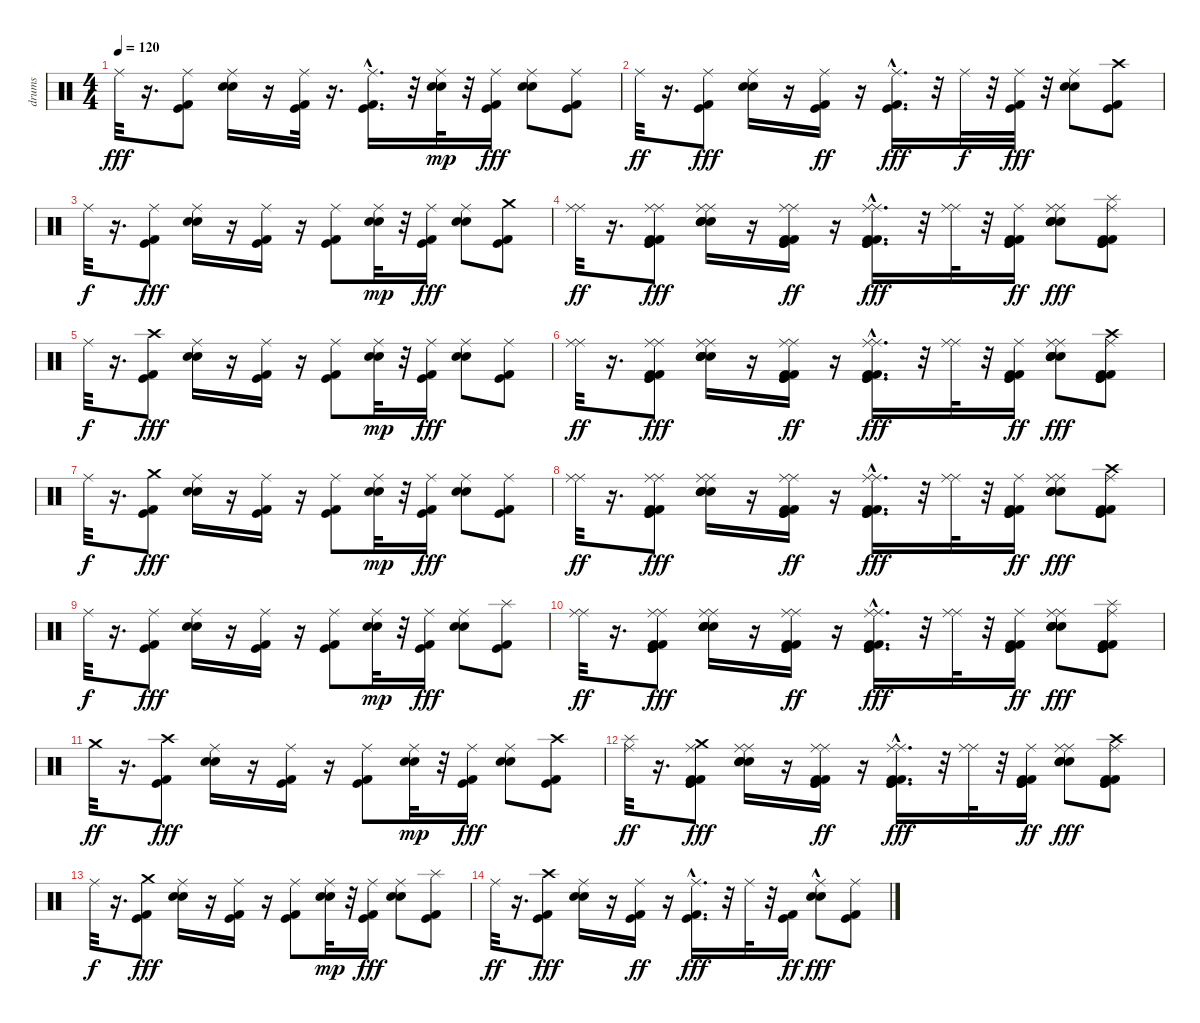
\track ("drums" "drums") {instrument percussion}
\staff {score}
\articulation defaults
\ts (4 4)
\tempo 120
\clef neutral
\ks c "Ride (middle)".32{dy fff}
r.16{d} ("Ride (middle)" "Kick (hit) 2" "Kick (hit)").8 ("Ride (middle)" "Snare (hit) 2" "Electric Snare (hit)").16 r.16 ("Ride (middle)" "Kick (hit) 2" "Kick (hit)").32 r.16{d} ("Ride (middle)" "Kick (hit)"{hac} "Kick (hit) 2"{hac}).16{d} r.32 ("Ride (middle)" "Snare (hit) 2" "Electric Snare (hit)").32{dy mp} r.32 ("Ride (middle)" "Kick (hit)" "Kick (hit) 2").16{dy fff} ("Ride (middle)" "Snare (hit) 2" "Electric Snare (hit)").8 ("Ride (middle)" "Kick (hit) 2" "Kick (hit)").8 |
"Ride (middle)".32{dy ff} r.16{d} ("Ride (middle)" "Kick (hit) 2" "Kick (hit)").8{dy fff} ("Ride (middle)" "Electric Snare (hit)" "Snare (hit) 2").16 r.16 ("Ride (middle)" "Kick (hit) 2" "Kick (hit)").16{dy ff} r.16 ("Ride (middle)" "Kick (hit) 2"{hac} "Kick (hit)"{hac}).16{d dy fff} r.32 "Ride (middle)".32{dy f} r.32 ("Ride (middle)" "Kick (hit) 2" "Kick (hit)").32{dy fff} r.32 ("Ride (middle)" "Snare (hit) 2" "Electric Snare (hit)").8 ("Crash high (hit)" "Kick (hit) 2" "Kick (hit)").8 |
"Ride (middle)".32{dy f} r.16{d} ("Ride (middle)" "Kick (hit) 2" "Kick (hit)").8{dy fff} ("Ride (middle)" "Electric Snare (hit)" "Snare (hit) 2").16 r.16 ("Ride (middle)" "Kick (hit) 2" "Kick (hit)").16 r.16 ("Ride (middle)" "Kick (hit) 2" "Kick (hit)").8 ("Ride (middle)" "Snare (hit) 2" "Electric Snare (hit)").32{dy mp} r.32 ("Ride (middle)" "Kick (hit) 2" "Kick (hit)").16{dy fff} ("Ride (middle)" "Snare (hit) 2" "Electric Snare (hit)").8 ("Crash medium (hit)" "Kick (hit) 2" "Kick (hit)").8 |
("Ride (middle)" "Ride (middle)").32{dy ff} r.16{d} ("Ride (middle)" "Ride (middle)" "Kick (hit) 2" "Kick (hit)" "Kick (hit)" "Kick (hit) 2").8{dy fff} ("Ride (middle)" "Ride (middle)" "Electric Snare (hit)" "Snare (hit) 2" "Electric Snare (hit)" "Snare (hit) 2").16 r.16 ("Ride (middle)" "Ride (middle)" "Kick (hit) 2" "Kick (hit)" "Kick (hit) 2" "Kick (hit)").16{dy ff} r.16 ("Ride (middle)" "Ride (middle)" "Kick (hit) 2"{hac} "Kick (hit)"{hac} "Kick (hit) 2"{hac} "Kick (hit)"{hac}).16{d dy fff} r.32 ("Ride (middle)" "Ride (middle)").32 r.32 ("Ride (middle)" "Kick (hit) 2" "Kick (hit)" "Kick (hit)" "Kick (hit) 2").16{dy ff} ("Ride (middle)" "Ride (middle)" "Snare (hit) 2" "Electric Snare (hit)" "Snare (hit) 2" "Electric Snare (hit)").8{dy fff} ("Ride (middle)" "Splash (hit)" "Kick (hit) 2" "Kick (hit)" "Kick (hit)" "Kick (hit) 2").8 |
"Ride (middle)".32{dy f} r.16{d} ("Crash high (hit)" "Kick (hit) 2" "Kick (hit)").8{dy fff} ("Ride (middle)" "Electric Snare (hit)" "Snare (hit) 2").16 r.16 ("Ride (middle)" "Kick (hit) 2" "Kick (hit)").16 r.16 ("Ride (middle)" "Kick (hit) 2" "Kick (hit)").8 ("Ride (middle)" "Snare (hit) 2" "Electric Snare (hit)").32{dy mp} r.32 ("Ride (middle)" "Kick (hit) 2" "Kick (hit)").16{dy fff} ("Ride (middle)" "Snare (hit) 2" "Electric Snare (hit)").8 ("Ride (middle)" "Kick (hit) 2" "Kick (hit)").8 |
("Ride (middle)" "Ride (middle)").32{dy ff} r.16{d} ("Ride (middle)" "Ride (middle)" "Kick (hit) 2" "Kick (hit)" "Kick (hit)" "Kick (hit) 2").8{dy fff} ("Ride (middle)" "Ride (middle)" "Electric Snare (hit)" "Snare (hit) 2" "Electric Snare (hit)" "Snare (hit) 2").16 r.16 ("Ride (middle)" "Ride (middle)" "Kick (hit) 2" "Kick (hit)" "Kick (hit) 2" "Kick (hit)").16{dy ff} r.16 ("Ride (middle)" "Ride (middle)" "Kick (hit) 2"{hac} "Kick (hit)"{hac} "Kick (hit) 2"{hac} "Kick (hit)"{hac}).16{d dy fff} r.32 ("Ride (middle)" "Ride (middle)").32 r.32 ("Ride (middle)" "Kick (hit) 2" "Kick (hit)" "Kick (hit)" "Kick (hit) 2").16{dy ff} ("Ride (middle)" "Ride (middle)" "Snare (hit) 2" "Electric Snare (hit)" "Snare (hit) 2" "Electric Snare (hit)").8{dy fff} ("Ride (middle)" "Crash high (hit)" "Kick (hit) 2" "Kick (hit)" "Kick (hit)" "Kick (hit) 2").8 |
"Ride (middle)".32{dy f} r.16{d} ("Crash medium (hit)" "Kick (hit) 2" "Kick (hit)").8{dy fff} ("Ride (middle)" "Electric Snare (hit)" "Snare (hit) 2").16 r.16 ("Ride (middle)" "Kick (hit) 2" "Kick (hit)").16 r.16 ("Ride (middle)" "Kick (hit) 2" "Kick (hit)").8 ("Ride (middle)" "Snare (hit) 2" "Electric Snare (hit)").32{dy mp} r.32 ("Ride (middle)" "Kick (hit) 2" "Kick (hit)").16{dy fff} ("Ride (middle)" "Snare (hit) 2" "Electric Snare (hit)").8 ("Ride (middle)" "Kick (hit) 2" "Kick (hit)").8 |
("Ride (middle)" "Ride (middle)").32{dy ff} r.16{d} ("Ride (middle)" "Ride (middle)" "Kick (hit) 2" "Kick (hit)" "Kick (hit)" "Kick (hit) 2").8{dy fff} ("Ride (middle)" "Ride (middle)" "Electric Snare (hit)" "Snare (hit) 2" "Electric Snare (hit)" "Snare (hit) 2").16 r.16 ("Ride (middle)" "Ride (middle)" "Kick (hit) 2" "Kick (hit)" "Kick (hit) 2" "Kick (hit)").16{dy ff} r.16 ("Ride (middle)" "Ride (middle)" "Kick (hit) 2"{hac} "Kick (hit)"{hac} "Kick (hit) 2"{hac} "Kick (hit)"{hac}).16{d dy fff} r.32 ("Ride (middle)" "Ride (middle)").32 r.32 ("Ride (middle)" "Kick (hit) 2" "Kick (hit)" "Kick (hit)" "Kick (hit) 2").16{dy ff} ("Ride (middle)" "Ride (middle)" "Snare (hit) 2" "Electric Snare (hit)" "Snare (hit) 2" "Electric Snare (hit)").8{dy fff} ("Crash high (hit)" "Ride (middle)" "Kick (hit) 2" "Kick (hit)" "Kick (hit)" "Kick (hit) 2").8 |
"Ride (middle)".32{dy f} r.16{d} ("Ride (middle)" "Kick (hit) 2" "Kick (hit)").8{dy fff} ("Ride (middle)" "Electric Snare (hit)" "Snare (hit) 2").16 r.16 ("Ride (middle)" "Kick (hit) 2" "Kick (hit)").16 r.16 ("Ride (middle)" "Kick (hit) 2" "Kick (hit)").8 ("Ride (middle)" "Snare (hit) 2" "Electric Snare (hit)").32{dy mp} r.32 ("Ride (middle)" "Kick (hit) 2" "Kick (hit)").16{dy fff} ("Ride (middle)" "Snare (hit) 2" "Electric Snare (hit)").8 ("Splash (hit)" "Kick (hit) 2" "Kick (hit)").8 |
("Ride (middle)" "Ride (middle)").32{dy ff} r.16{d} ("Ride (middle)" "Ride (middle)" "Kick (hit) 2" "Kick (hit)" "Kick (hit)" "Kick (hit) 2").8{dy fff} ("Ride (middle)" "Ride (middle)" "Electric Snare (hit)" "Snare (hit) 2" "Electric Snare (hit)" "Snare (hit) 2").16 r.16 ("Ride (middle)" "Ride (middle)" "Kick (hit) 2" "Kick (hit)" "Kick (hit) 2" "Kick (hit)").16{dy ff} r.16 ("Ride (middle)" "Ride (middle)" "Kick (hit) 2"{hac} "Kick (hit)"{hac} "Kick (hit) 2"{hac} "Kick (hit)"{hac}).16{d dy fff} r.32 ("Ride (middle)" "Ride (middle)").32 r.32 ("Ride (middle)" "Kick (hit) 2" "Kick (hit)" "Kick (hit)" "Kick (hit) 2").16{dy ff} ("Ride (middle)" "Ride (middle)" "Snare (hit) 2" "Electric Snare (hit)" "Snare (hit) 2" "Electric Snare (hit)").8{dy fff} ("Splash (hit)" "Ride (middle)" "Kick (hit) 2" "Kick (hit)" "Kick (hit)" "Kick (hit) 2").8 |
"Crash medium (hit)".32{dy ff} r.16{d} ("Crash high (hit)" "Kick (hit) 2" "Kick (hit)").8{dy fff} ("Ride (middle)" "Electric Snare (hit)" "Snare (hit) 2").16 r.16 ("Ride (middle)" "Kick (hit) 2" "Kick (hit)").16 r.16 ("Ride (middle)" "Kick (hit) 2" "Kick (hit)").8 ("Ride (middle)" "Snare (hit) 2" "Electric Snare (hit)").32{dy mp} r.32 ("Ride (middle)" "Kick (hit) 2" "Kick (hit)").16{dy fff} ("Ride (middle)" "Snare (hit) 2" "Electric Snare (hit)").8 ("Crash high (hit)" "Kick (hit) 2" "Kick (hit)").8 |
("Splash (hit)" "Ride (middle)").32{dy ff} r.16{d} ("Crash medium (hit)" "Ride (middle)" "Kick (hit) 2" "Kick (hit)" "Kick (hit)" "Kick (hit) 2").8{dy fff} ("Ride (middle)" "Ride (middle)" "Electric Snare (hit)" "Snare (hit) 2" "Electric Snare (hit)" "Snare (hit) 2").16 r.16 ("Ride (middle)" "Ride (middle)" "Kick (hit) 2" "Kick (hit)" "Kick (hit) 2" "Kick (hit)").16{dy ff} r.16 ("Ride (middle)" "Ride (middle)" "Kick (hit) 2"{hac} "Kick (hit)"{hac} "Kick (hit) 2"{hac} "Kick (hit)"{hac}).16{d dy fff} r.32 ("Ride (middle)" "Ride (middle)").32 r.32 ("Ride (middle)" "Kick (hit) 2" "Kick (hit)" "Kick (hit)" "Kick (hit) 2").16{dy ff} ("Ride (middle)" "Ride (middle)" "Snare (hit) 2" "Electric Snare (hit)" "Snare (hit) 2" "Electric Snare (hit)").8{dy fff} ("Ride (middle)" "Crash high (hit)" "Kick (hit) 2" "Kick (hit)" "Kick (hit)" "Kick (hit) 2").8 |
"Ride (middle)".32{dy f} r.16{d} ("Crash medium (hit)" "Kick (hit) 2" "Kick (hit)").8{dy fff} ("Ride (middle)" "Electric Snare (hit)" "Snare (hit) 2").16 r.16 ("Ride (middle)" "Kick (hit) 2" "Kick (hit)").16 r.16 ("Ride (middle)" "Kick (hit) 2" "Kick (hit)").8 ("Ride (middle)" "Snare (hit) 2" "Electric Snare (hit)").32{dy mp} r.32 ("Ride (middle)" "Kick (hit) 2" "Kick (hit)").16{dy fff} ("Ride (middle)" "Snare (hit) 2" "Electric Snare (hit)").8 ("Splash (hit)" "Kick (hit) 2" "Kick (hit)").8 |
"Ride (middle)".32{dy ff} r.16{d} ("Crash high (hit)" "Kick (hit)" "Kick (hit) 2").8{dy fff} ("Ride (middle)" "Electric Snare (hit)" "Snare (hit) 2").16 r.16 ("Ride (middle)" "Kick (hit) 2" "Kick (hit)").16{dy ff} r.16 ("Ride (middle)" "Kick (hit) 2"{hac} "Kick (hit)"{hac}).16{d dy fff} r.32 "Ride (middle)".32 r.32 ("Kick (hit)" "Kick (hit) 2").16{dy ff} ("Ride (middle)" "Snare (hit) 2"{hac} "Electric Snare (hit)").8{dy fff} ("Ride (middle)" "Kick (hit)" "Kick (hit) 2").8
